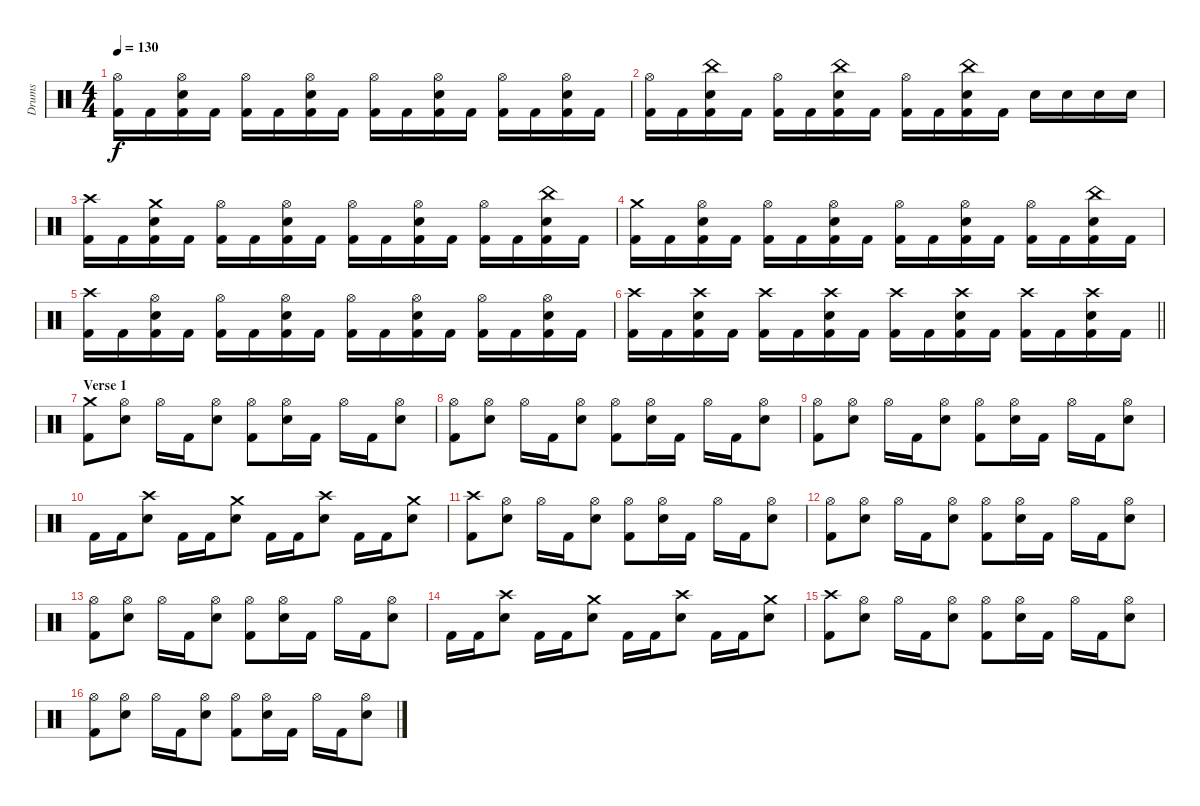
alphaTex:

\track ("Drums" "Drums") {instrument percussion}
\staff {score}
\articulation defaults
\ts (4 4)
\tempo 130
\clef neutral
\ks c
("Hi-Hat (open)" "Kick (hit) 2").16{dy f} "Kick (hit) 2".16 ("Hi-Hat (open)" "Electric Snare (hit)" "Kick (hit) 2").16 "Kick (hit) 2".16 ("Hi-Hat (open)" "Kick (hit) 2").16 "Kick (hit) 2".16 ("Hi-Hat (open)" "Electric Snare (hit)" "Kick (hit) 2").16 "Kick (hit) 2".16 ("Hi-Hat (open)" "Kick (hit) 2").16 "Kick (hit) 2".16 ("Hi-Hat (open)" "Electric Snare (hit)" "Kick (hit) 2").16 "Kick (hit) 2".16 ("Hi-Hat (open)" "Kick (hit) 2").16 "Kick (hit) 2".16 ("Hi-Hat (open)" "Electric Snare (hit)" "Kick (hit) 2").16 "Kick (hit) 2".16 |
("Hi-Hat (open)" "Kick (hit) 2").16 "Kick (hit) 2".16 ("China (hit)" "Electric Snare (hit)" "Kick (hit) 2").16 "Kick (hit) 2".16 ("Hi-Hat (open)" "Kick (hit) 2").16 "Kick (hit) 2".16 ("China (hit)" "Electric Snare (hit)" "Kick (hit) 2").16 "Kick (hit) 2".16 ("Hi-Hat (open)" "Kick (hit) 2").16 "Kick (hit) 2".16 ("China (hit)" "Electric Snare (hit)" "Kick (hit) 2").16 "Kick (hit) 2".16 "Electric Snare (hit)".16 "Electric Snare (hit)".16 "Electric Snare (hit)".16 "Electric Snare (hit)".16 |
("Crash high (hit)" "Kick (hit) 2").16 "Kick (hit) 2".16 ("Crash medium (hit)" "Electric Snare (hit)" "Kick (hit) 2").16 "Kick (hit) 2".16 ("Hi-Hat (open)" "Kick (hit) 2").16 "Kick (hit) 2".16 ("Hi-Hat (open)" "Electric Snare (hit)" "Kick (hit) 2").16 "Kick (hit) 2".16 ("Hi-Hat (open)" "Kick (hit) 2").16 "Kick (hit) 2".16 ("Hi-Hat (open)" "Electric Snare (hit)" "Kick (hit) 2").16 "Kick (hit) 2".16 ("Hi-Hat (open)" "Kick (hit) 2").16 "Kick (hit) 2".16 ("China (hit)" "Electric Snare (hit)" "Kick (hit) 2").16 "Kick (hit) 2".16 |
("Crash medium (hit)" "Kick (hit) 2").16 "Kick (hit) 2".16 ("Hi-Hat (open)" "Electric Snare (hit)" "Kick (hit) 2").16 "Kick (hit) 2".16 ("Hi-Hat (open)" "Kick (hit) 2").16 "Kick (hit) 2".16 ("Hi-Hat (open)" "Electric Snare (hit)" "Kick (hit) 2").16 "Kick (hit) 2".16 ("Hi-Hat (open)" "Kick (hit) 2").16 "Kick (hit) 2".16 ("Hi-Hat (open)" "Electric Snare (hit)" "Kick (hit) 2").16 "Kick (hit) 2".16 ("Hi-Hat (open)" "Kick (hit) 2").16 "Kick (hit) 2".16 ("China (hit)" "Electric Snare (hit)" "Kick (hit) 2").16 "Kick (hit) 2".16 |
("Crash high (hit)" "Kick (hit) 2").16 "Kick (hit) 2".16 ("Hi-Hat (open)" "Electric Snare (hit)" "Kick (hit) 2").16 "Kick (hit) 2".16 ("Hi-Hat (open)" "Kick (hit) 2").16 "Kick (hit) 2".16 ("Hi-Hat (open)" "Electric Snare (hit)" "Kick (hit) 2").16 "Kick (hit) 2".16 ("Hi-Hat (open)" "Kick (hit) 2").16 "Kick (hit) 2".16 ("Hi-Hat (open)" "Electric Snare (hit)" "Kick (hit) 2").16 "Kick (hit) 2".16 ("Hi-Hat (open)" "Kick (hit) 2").16 "Kick (hit) 2".16 ("Hi-Hat (open)" "Electric Snare (hit)" "Kick (hit) 2").16 "Kick (hit) 2".16 |
\barLineRight lightlight
("Crash high (hit)" "Kick (hit) 2").16 "Kick (hit) 2".16 ("Crash high (hit)" "Electric Snare (hit)" "Kick (hit) 2").16 "Kick (hit) 2".16 ("Crash high (hit)" "Kick (hit) 2").16 "Kick (hit) 2".16 ("Crash high (hit)" "Electric Snare (hit)" "Kick (hit) 2").16 "Kick (hit) 2".16 ("Crash high (hit)" "Kick (hit) 2").16 "Kick (hit) 2".16 ("Crash high (hit)" "Electric Snare (hit)" "Kick (hit) 2").16 "Kick (hit) 2".16 ("Crash high (hit)" "Kick (hit) 2").16 "Kick (hit) 2".16 ("Crash high (hit)" "Electric Snare (hit)" "Kick (hit) 2").16 "Kick (hit) 2".16 |
\section ("" "Verse 1")
("Crash medium (hit)" "Kick (hit) 2").8 ("Hi-Hat (open)" "Electric Snare (hit)").8 "Hi-Hat (open)".16 "Kick (hit) 2".16 ("Hi-Hat (open)" "Electric Snare (hit)").8 ("Hi-Hat (open)" "Kick (hit) 2").8 ("Hi-Hat (open)" "Electric Snare (hit)").16 "Kick (hit) 2".16 "Hi-Hat (open)".16 "Kick (hit) 2".16 ("Hi-Hat (open)" "Electric Snare (hit)").8 |
("Hi-Hat (open)" "Kick (hit) 2").8 ("Hi-Hat (open)" "Electric Snare (hit)").8 "Hi-Hat (open)".16 "Kick (hit) 2".16 ("Hi-Hat (open)" "Electric Snare (hit)").8 ("Hi-Hat (open)" "Kick (hit) 2").8 ("Hi-Hat (open)" "Electric Snare (hit)").16 "Kick (hit) 2".16 "Hi-Hat (open)".16 "Kick (hit) 2".16 ("Hi-Hat (open)" "Electric Snare (hit)").8 |
("Hi-Hat (open)" "Kick (hit) 2").8 ("Hi-Hat (open)" "Electric Snare (hit)").8 "Hi-Hat (open)".16 "Kick (hit) 2".16 ("Hi-Hat (open)" "Electric Snare (hit)").8 ("Hi-Hat (open)" "Kick (hit) 2").8 ("Hi-Hat (open)" "Electric Snare (hit)").16 "Kick (hit) 2".16 "Hi-Hat (open)".16 "Kick (hit) 2".16 ("Hi-Hat (open)" "Electric Snare (hit)").8 |
"Kick (hit) 2".16 "Kick (hit) 2".16 ("Crash high (hit)" "Electric Snare (hit)").8 "Kick (hit) 2".16 "Kick (hit) 2".16 ("Crash medium (hit)" "Electric Snare (hit)").8 "Kick (hit) 2".16 "Kick (hit) 2".16 ("Crash high (hit)" "Electric Snare (hit)").8 "Kick (hit) 2".16 "Kick (hit) 2".16 ("Crash medium (hit)" "Electric Snare (hit)").8 |
("Crash high (hit)" "Kick (hit) 2").8 ("Hi-Hat (open)" "Electric Snare (hit)").8 "Hi-Hat (open)".16 "Kick (hit) 2".16 ("Hi-Hat (open)" "Electric Snare (hit)").8 ("Hi-Hat (open)" "Kick (hit) 2").8 ("Hi-Hat (open)" "Electric Snare (hit)").16 "Kick (hit) 2".16 "Hi-Hat (open)".16 "Kick (hit) 2".16 ("Hi-Hat (open)" "Electric Snare (hit)").8 |
("Hi-Hat (open)" "Kick (hit) 2").8 ("Hi-Hat (open)" "Electric Snare (hit)").8 "Hi-Hat (open)".16 "Kick (hit) 2".16 ("Hi-Hat (open)" "Electric Snare (hit)").8 ("Hi-Hat (open)" "Kick (hit) 2").8 ("Hi-Hat (open)" "Electric Snare (hit)").16 "Kick (hit) 2".16 "Hi-Hat (open)".16 "Kick (hit) 2".16 ("Hi-Hat (open)" "Electric Snare (hit)").8 |
("Hi-Hat (open)" "Kick (hit) 2").8 ("Hi-Hat (open)" "Electric Snare (hit)").8 "Hi-Hat (open)".16 "Kick (hit) 2".16 ("Hi-Hat (open)" "Electric Snare (hit)").8 ("Hi-Hat (open)" "Kick (hit) 2").8 ("Hi-Hat (open)" "Electric Snare (hit)").16 "Kick (hit) 2".16 "Hi-Hat (open)".16 "Kick (hit) 2".16 ("Hi-Hat (open)" "Electric Snare (hit)").8 |
"Kick (hit) 2".16 "Kick (hit) 2".16 ("Crash high (hit)" "Electric Snare (hit)").8 "Kick (hit) 2".16 "Kick (hit) 2".16 ("Crash medium (hit)" "Electric Snare (hit)").8 "Kick (hit) 2".16 "Kick (hit) 2".16 ("Crash high (hit)" "Electric Snare (hit)").8 "Kick (hit) 2".16 "Kick (hit) 2".16 ("Crash medium (hit)" "Electric Snare (hit)").8 |
("Crash high (hit)" "Kick (hit) 2").8 ("Hi-Hat (open)" "Electric Snare (hit)").8 "Hi-Hat (open)".16 "Kick (hit) 2".16 ("Hi-Hat (open)" "Electric Snare (hit)").8 ("Hi-Hat (open)" "Kick (hit) 2").8 ("Hi-Hat (open)" "Electric Snare (hit)").16 "Kick (hit) 2".16 "Hi-Hat (open)".16 "Kick (hit) 2".16 ("Hi-Hat (open)" "Electric Snare (hit)").8 |
("Hi-Hat (open)" "Kick (hit) 2").8 ("Hi-Hat (open)" "Electric Snare (hit)").8 "Hi-Hat (open)".16 "Kick (hit) 2".16 ("Hi-Hat (open)" "Electric Snare (hit)").8 ("Hi-Hat (open)" "Kick (hit) 2").8 ("Hi-Hat (open)" "Electric Snare (hit)").16 "Kick (hit) 2".16 "Hi-Hat (open)".16 "Kick (hit) 2".16 ("Hi-Hat (open)" "Electric Snare (hit)").8
